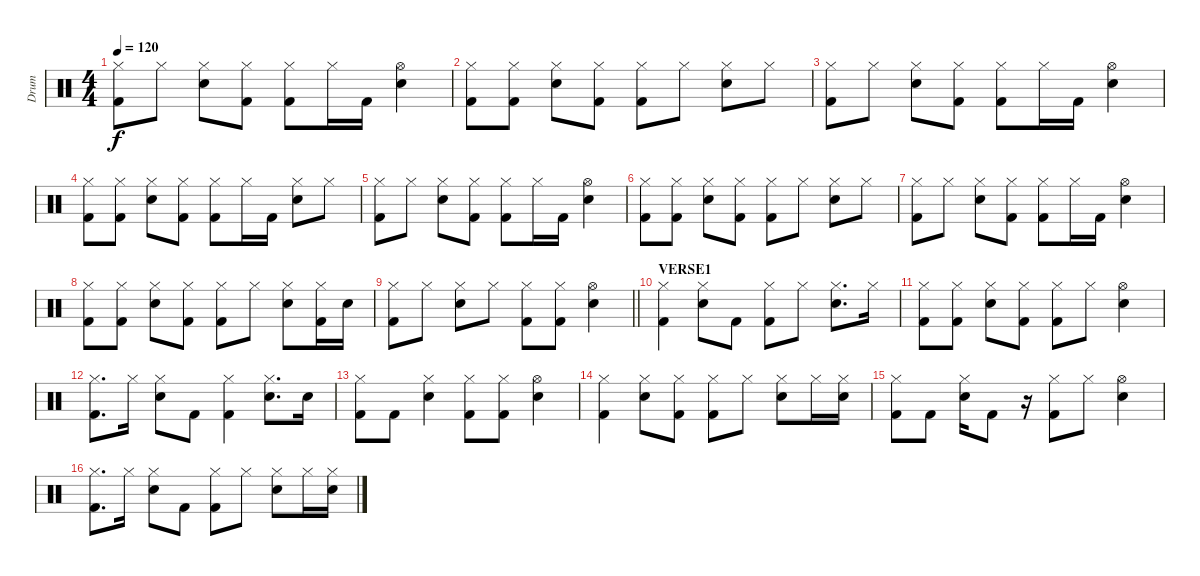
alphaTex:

\track ("Drum" "Drum") {instrument percussion}
\staff {score}
\articulation defaults
\ts (4 4)
\tempo 120
\clef neutral
\ks c
("Kick (hit) 2" "Hi-Hat (closed)").8{dy f} "Hi-Hat (closed)".8 ("Snare (hit) 2" "Hi-Hat (closed)").8 ("Kick (hit) 2" "Hi-Hat (closed)").8 ("Kick (hit) 2" "Hi-Hat (closed)").8 "Hi-Hat (closed)".16 "Kick (hit) 2".16 ("Snare (hit) 2" "Hi-Hat (open)").4 |
("Kick (hit) 2" "Hi-Hat (closed)").8 ("Kick (hit) 2" "Hi-Hat (closed)").8 ("Snare (hit) 2" "Hi-Hat (closed)").8 ("Kick (hit) 2" "Hi-Hat (closed)").8 ("Kick (hit) 2" "Hi-Hat (closed)").8 "Hi-Hat (closed)".8 ("Snare (hit) 2" "Hi-Hat (closed)").8 "Hi-Hat (closed)".8 |
("Kick (hit) 2" "Hi-Hat (closed)").8 "Hi-Hat (closed)".8 ("Snare (hit) 2" "Hi-Hat (closed)").8 ("Kick (hit) 2" "Hi-Hat (closed)").8 ("Kick (hit) 2" "Hi-Hat (closed)").8 "Hi-Hat (closed)".16 "Kick (hit) 2".16 ("Snare (hit) 2" "Hi-Hat (open)").4 |
("Kick (hit) 2" "Hi-Hat (closed)").8 ("Kick (hit) 2" "Hi-Hat (closed)").8 ("Snare (hit) 2" "Hi-Hat (closed)").8 ("Kick (hit) 2" "Hi-Hat (closed)").8 ("Kick (hit) 2" "Hi-Hat (closed)").8 "Hi-Hat (closed)".16 "Kick (hit) 2".16 ("Snare (hit) 2" "Hi-Hat (closed)").8 "Hi-Hat (closed)".8 |
("Kick (hit) 2" "Hi-Hat (closed)").8 "Hi-Hat (closed)".8 ("Snare (hit) 2" "Hi-Hat (closed)").8 ("Kick (hit) 2" "Hi-Hat (closed)").8 ("Kick (hit) 2" "Hi-Hat (closed)").8 "Hi-Hat (closed)".16 "Kick (hit) 2".16 ("Snare (hit) 2" "Hi-Hat (open)").4 |
("Kick (hit) 2" "Hi-Hat (closed)").8 ("Kick (hit) 2" "Hi-Hat (closed)").8 ("Snare (hit) 2" "Hi-Hat (closed)").8 ("Kick (hit) 2" "Hi-Hat (closed)").8 ("Kick (hit) 2" "Hi-Hat (closed)").8 "Hi-Hat (closed)".8 ("Snare (hit) 2" "Hi-Hat (closed)").8 "Hi-Hat (closed)".8 |
("Kick (hit) 2" "Hi-Hat (closed)").8 "Hi-Hat (closed)".8 ("Snare (hit) 2" "Hi-Hat (closed)").8 ("Kick (hit) 2" "Hi-Hat (closed)").8 ("Kick (hit) 2" "Hi-Hat (closed)").8 "Hi-Hat (closed)".16 "Kick (hit) 2".16 ("Snare (hit) 2" "Hi-Hat (open)").4 |
("Kick (hit) 2" "Hi-Hat (closed)").8 ("Kick (hit) 2" "Hi-Hat (closed)").8 ("Snare (hit) 2" "Hi-Hat (closed)").8 ("Kick (hit) 2" "Hi-Hat (closed)").8 ("Kick (hit) 2" "Hi-Hat (closed)").8 "Hi-Hat (closed)".8 ("Snare (hit) 2" "Hi-Hat (closed)").8 ("Kick (hit) 2" "Hi-Hat (closed)").16 "Snare (hit) 2".16 |
\barLineRight lightlight
("Kick (hit) 2" "Hi-Hat (closed)").8 "Hi-Hat (closed)".8 ("Snare (hit) 2" "Hi-Hat (closed)").8 "Hi-Hat (closed)".8 ("Kick (hit) 2" "Hi-Hat (closed)").8 ("Kick (hit) 2" "Hi-Hat (closed)").8 ("Snare (hit) 2" "Hi-Hat (open)").4 |
\section ("" "VERSE1")
("Kick (hit) 2" "Hi-Hat (closed)").4 ("Snare (hit) 2" "Hi-Hat (closed)").8 "Kick (hit) 2".8 ("Kick (hit) 2" "Hi-Hat (closed)").8 "Hi-Hat (closed)".8 ("Snare (hit) 2" "Hi-Hat (closed)").8{d} "Hi-Hat (closed)".16 |
("Kick (hit) 2" "Hi-Hat (closed)").8 ("Kick (hit) 2" "Hi-Hat (closed)").8 ("Snare (hit) 2" "Hi-Hat (closed)").8 ("Kick (hit) 2" "Hi-Hat (closed)").8 ("Kick (hit) 2" "Hi-Hat (closed)").8 "Hi-Hat (closed)".8 ("Snare (hit) 2" "Hi-Hat (open)").4 |
("Kick (hit) 2" "Hi-Hat (closed)").8{d} "Hi-Hat (closed)".16 ("Snare (hit) 2" "Hi-Hat (closed)").8 "Kick (hit) 2".8 ("Kick (hit) 2" "Hi-Hat (closed)").4 ("Snare (hit) 2" "Hi-Hat (closed)").8{d} "Snare (hit) 2".16 |
("Kick (hit) 2" "Hi-Hat (closed)").8 "Kick (hit) 2".8 ("Snare (hit) 2" "Hi-Hat (closed)").4 ("Kick (hit) 2" "Hi-Hat (closed)").8 ("Kick (hit) 2" "Hi-Hat (closed)").8 ("Snare (hit) 2" "Hi-Hat (open)").4 |
("Kick (hit) 2" "Hi-Hat (closed)").4 ("Snare (hit) 2" "Hi-Hat (closed)").8 ("Kick (hit) 2" "Hi-Hat (closed)").8 ("Kick (hit) 2" "Hi-Hat (closed)").8 "Hi-Hat (closed)".8 ("Snare (hit) 2" "Hi-Hat (closed)").8 "Hi-Hat (closed)".16 ("Snare (hit) 2" "Hi-Hat (closed)").16 |
("Kick (hit) 2" "Hi-Hat (closed)").8 "Kick (hit) 2".8 ("Snare (hit) 2" "Hi-Hat (closed)").16 "Kick (hit) 2".8 r.16 ("Kick (hit) 2" "Hi-Hat (closed)").8 "Hi-Hat (closed)".8 ("Snare (hit) 2" "Hi-Hat (open)").4 |
("Kick (hit) 2" "Hi-Hat (closed)").8{d} "Hi-Hat (closed)".16 ("Snare (hit) 2" "Hi-Hat (closed)").8 "Kick (hit) 2".8 ("Kick (hit) 2" "Hi-Hat (closed)").8 "Hi-Hat (closed)".8 ("Snare (hit) 2" "Hi-Hat (closed)").8 "Hi-Hat (closed)".16 ("Snare (hit) 2" "Hi-Hat (closed)").16
